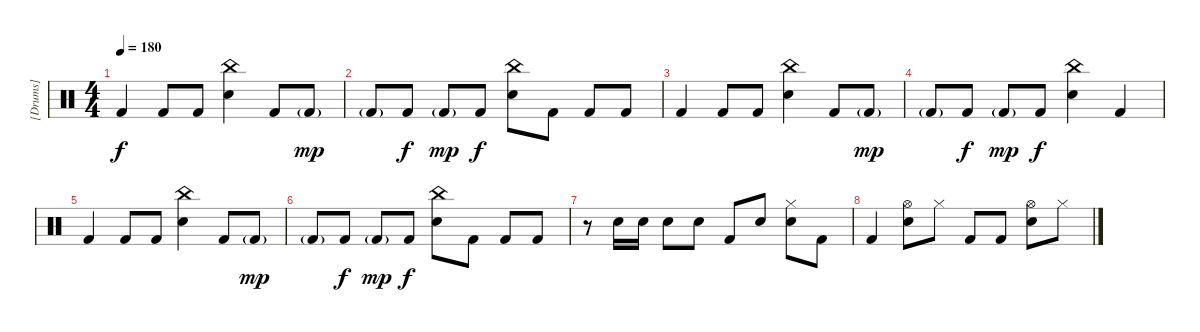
\track ("[Drums]" "[Drums]") {instrument percussion}
\staff {score}
\articulation defaults
\ts (4 4)
\tempo 180
\clef neutral
\ks c "Kick (hit) 2".4{dy f} "Kick (hit) 2".8 "Kick (hit) 2".8
("China (hit)" "Electric Snare (hit)").4 "Kick (hit) 2".8 "Kick (hit) 2"{g}.8{dy mp} |
"Kick (hit) 2"{g}.8 "Kick (hit) 2".8{dy f} "Kick (hit) 2"{g}.8{dy mp} "Kick (hit) 2".8{dy f} ("China (hit)" "Electric Snare (hit)").8 "Kick (hit) 2".8 "Kick (hit) 2".8 "Kick (hit) 2".8 |
"Kick (hit) 2".4 "Kick (hit) 2".8 "Kick (hit) 2".8 ("China (hit)" "Electric Snare (hit)").4 "Kick (hit) 2".8 "Kick (hit) 2"{g}.8{dy mp} |
"Kick (hit) 2"{g}.8 "Kick (hit) 2".8{dy f} "Kick (hit) 2"{g}.8{dy mp} "Kick (hit) 2".8{dy f} ("China (hit)" "Electric Snare (hit)").4 "Kick (hit) 2".4 |
"Kick (hit) 2".4 "Kick (hit) 2".8 "Kick (hit) 2".8 ("China (hit)" "Electric Snare (hit)").4 "Kick (hit) 2".8 "Kick (hit) 2"{g}.8{dy mp} |
"Kick (hit) 2"{g}.8 "Kick (hit) 2".8{dy f} "Kick (hit) 2"{g}.8{dy mp} "Kick (hit) 2".8{dy f} ("China (hit)" "Electric Snare (hit)").8 "Kick (hit) 2".8 "Kick (hit) 2".8 "Kick (hit) 2".8 |
r.8 "Electric Snare (hit)".16 "Electric Snare (hit)".16 "Electric Snare (hit)".8 "Electric Snare (hit)".8 "Kick (hit) 2".8 "Electric Snare (hit)".8 ("Hi-Hat (closed)" "Electric Snare (hit)").8 "Kick (hit) 2".8 |
"Kick (hit) 2".4 ("Hi-Hat (open)" "Electric Snare (hit)").8 "Hi-Hat (closed)".8 "Kick (hit) 2".8 "Kick (hit) 2".8 ("Hi-Hat (open)" "Electric Snare (hit)").8 "Hi-Hat (closed)".8
